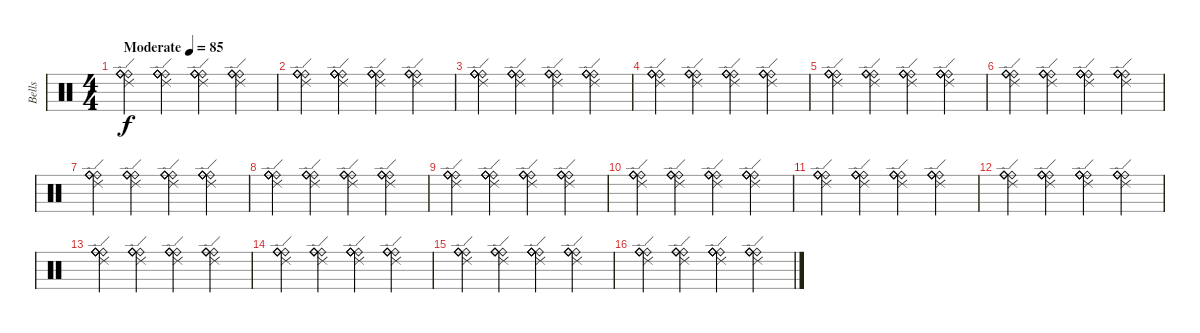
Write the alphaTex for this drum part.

\track ("Bells" "Bells") {instrument percussion}
\staff {score}
\articulation defaults
\ts (4 4)
\tempo (85 "Moderate")
\clef neutral
\ks c
("Ride (bell)" "Ride (bell)" "Ride (bell)" "Ride (bell)" "Ride (edge) 2").4{dy f volume 4} ("Ride (bell)" "Ride (bell)" "Ride (bell)" "Ride (bell)" "Ride (edge) 2").4 ("Ride (bell)" "Ride (bell)" "Ride (bell)" "Ride (bell)" "Ride (edge) 2").4 ("Ride (bell)" "Ride (bell)" "Ride (bell)" "Ride (bell)" "Ride (edge) 2").4 |
("Ride (bell)" "Ride (bell)" "Ride (bell)" "Ride (bell)" "Ride (edge) 2").4 ("Ride (bell)" "Ride (bell)" "Ride (bell)" "Ride (bell)" "Ride (edge) 2").4 ("Ride (bell)" "Ride (bell)" "Ride (bell)" "Ride (bell)" "Ride (edge) 2").4 ("Ride (bell)" "Ride (bell)" "Ride (bell)" "Ride (bell)" "Ride (edge) 2").4 |
("Ride (bell)" "Ride (bell)" "Ride (bell)" "Ride (bell)" "Ride (edge) 2").4 ("Ride (bell)" "Ride (bell)" "Ride (bell)" "Ride (bell)" "Ride (edge) 2").4 ("Ride (bell)" "Ride (bell)" "Ride (bell)" "Ride (bell)" "Ride (edge) 2").4 ("Ride (bell)" "Ride (bell)" "Ride (bell)" "Ride (bell)" "Ride (edge) 2").4 |
("Ride (bell)" "Ride (bell)" "Ride (bell)" "Ride (bell)" "Ride (edge) 2").4 ("Ride (bell)" "Ride (bell)" "Ride (bell)" "Ride (bell)" "Ride (edge) 2").4 ("Ride (bell)" "Ride (bell)" "Ride (bell)" "Ride (bell)" "Ride (edge) 2").4 ("Ride (bell)" "Ride (bell)" "Ride (bell)" "Ride (bell)" "Ride (edge) 2").4 |
("Ride (bell)" "Ride (bell)" "Ride (bell)" "Ride (bell)" "Ride (edge) 2").4 ("Ride (bell)" "Ride (bell)" "Ride (bell)" "Ride (bell)" "Ride (edge) 2").4 ("Ride (bell)" "Ride (bell)" "Ride (bell)" "Ride (bell)" "Ride (edge) 2").4 ("Ride (bell)" "Ride (bell)" "Ride (bell)" "Ride (bell)" "Ride (edge) 2").4 |
("Ride (bell)" "Ride (bell)" "Ride (bell)" "Ride (bell)" "Ride (edge) 2").4 ("Ride (bell)" "Ride (bell)" "Ride (bell)" "Ride (bell)" "Ride (edge) 2").4 ("Ride (bell)" "Ride (bell)" "Ride (bell)" "Ride (bell)" "Ride (edge) 2").4 ("Ride (bell)" "Ride (bell)" "Ride (bell)" "Ride (bell)" "Ride (edge) 2").4 |
("Ride (bell)" "Ride (bell)" "Ride (bell)" "Ride (bell)" "Ride (edge) 2").4 ("Ride (bell)" "Ride (bell)" "Ride (bell)" "Ride (bell)" "Ride (edge) 2").4 ("Ride (bell)" "Ride (bell)" "Ride (bell)" "Ride (bell)" "Ride (edge) 2").4 ("Ride (bell)" "Ride (bell)" "Ride (bell)" "Ride (bell)" "Ride (edge) 2").4 |
("Ride (bell)" "Ride (bell)" "Ride (bell)" "Ride (bell)" "Ride (edge) 2").4 ("Ride (bell)" "Ride (bell)" "Ride (bell)" "Ride (bell)" "Ride (edge) 2").4 ("Ride (bell)" "Ride (bell)" "Ride (bell)" "Ride (bell)" "Ride (edge) 2").4 ("Ride (bell)" "Ride (bell)" "Ride (bell)" "Ride (bell)" "Ride (edge) 2").4 |
("Ride (bell)" "Ride (bell)" "Ride (bell)" "Ride (bell)" "Ride (edge) 2").4 ("Ride (bell)" "Ride (bell)" "Ride (bell)" "Ride (bell)" "Ride (edge) 2").4 ("Ride (bell)" "Ride (bell)" "Ride (bell)" "Ride (bell)" "Ride (edge) 2").4 ("Ride (bell)" "Ride (bell)" "Ride (bell)" "Ride (bell)" "Ride (edge) 2").4 |
("Ride (bell)" "Ride (bell)" "Ride (bell)" "Ride (bell)" "Ride (edge) 2").4 ("Ride (bell)" "Ride (bell)" "Ride (bell)" "Ride (bell)" "Ride (edge) 2").4 ("Ride (bell)" "Ride (bell)" "Ride (bell)" "Ride (bell)" "Ride (edge) 2").4 ("Ride (bell)" "Ride (bell)" "Ride (bell)" "Ride (bell)" "Ride (edge) 2").4 |
("Ride (bell)" "Ride (bell)" "Ride (bell)" "Ride (bell)" "Ride (edge) 2").4 ("Ride (bell)" "Ride (bell)" "Ride (bell)" "Ride (bell)" "Ride (edge) 2").4 ("Ride (bell)" "Ride (bell)" "Ride (bell)" "Ride (bell)" "Ride (edge) 2").4 ("Ride (bell)" "Ride (bell)" "Ride (bell)" "Ride (bell)" "Ride (edge) 2").4 |
("Ride (bell)" "Ride (bell)" "Ride (bell)" "Ride (bell)" "Ride (edge) 2").4 ("Ride (bell)" "Ride (bell)" "Ride (bell)" "Ride (bell)" "Ride (edge) 2").4 ("Ride (bell)" "Ride (bell)" "Ride (bell)" "Ride (bell)" "Ride (edge) 2").4 ("Ride (bell)" "Ride (bell)" "Ride (bell)" "Ride (bell)" "Ride (edge) 2").4 |
("Ride (bell)" "Ride (bell)" "Ride (bell)" "Ride (bell)" "Ride (edge) 2").4 ("Ride (bell)" "Ride (bell)" "Ride (bell)" "Ride (bell)" "Ride (edge) 2").4 ("Ride (bell)" "Ride (bell)" "Ride (bell)" "Ride (bell)" "Ride (edge) 2").4 ("Ride (bell)" "Ride (bell)" "Ride (bell)" "Ride (bell)" "Ride (edge) 2").4 |
("Ride (bell)" "Ride (bell)" "Ride (bell)" "Ride (bell)" "Ride (edge) 2").4 ("Ride (bell)" "Ride (bell)" "Ride (bell)" "Ride (bell)" "Ride (edge) 2").4 ("Ride (bell)" "Ride (bell)" "Ride (bell)" "Ride (bell)" "Ride (edge) 2").4 ("Ride (bell)" "Ride (bell)" "Ride (bell)" "Ride (bell)" "Ride (edge) 2").4 |
("Ride (bell)" "Ride (bell)" "Ride (bell)" "Ride (bell)" "Ride (edge) 2").4 ("Ride (bell)" "Ride (bell)" "Ride (bell)" "Ride (bell)" "Ride (edge) 2").4 ("Ride (bell)" "Ride (bell)" "Ride (bell)" "Ride (bell)" "Ride (edge) 2").4 ("Ride (bell)" "Ride (bell)" "Ride (bell)" "Ride (bell)" "Ride (edge) 2").4 |
("Ride (bell)" "Ride (bell)" "Ride (bell)" "Ride (bell)" "Ride (edge) 2").4 ("Ride (bell)" "Ride (bell)" "Ride (bell)" "Ride (bell)" "Ride (edge) 2").4 ("Ride (bell)" "Ride (bell)" "Ride (bell)" "Ride (bell)" "Ride (edge) 2").4 ("Ride (bell)" "Ride (bell)" "Ride (bell)" "Ride (bell)" "Ride (edge) 2").4
